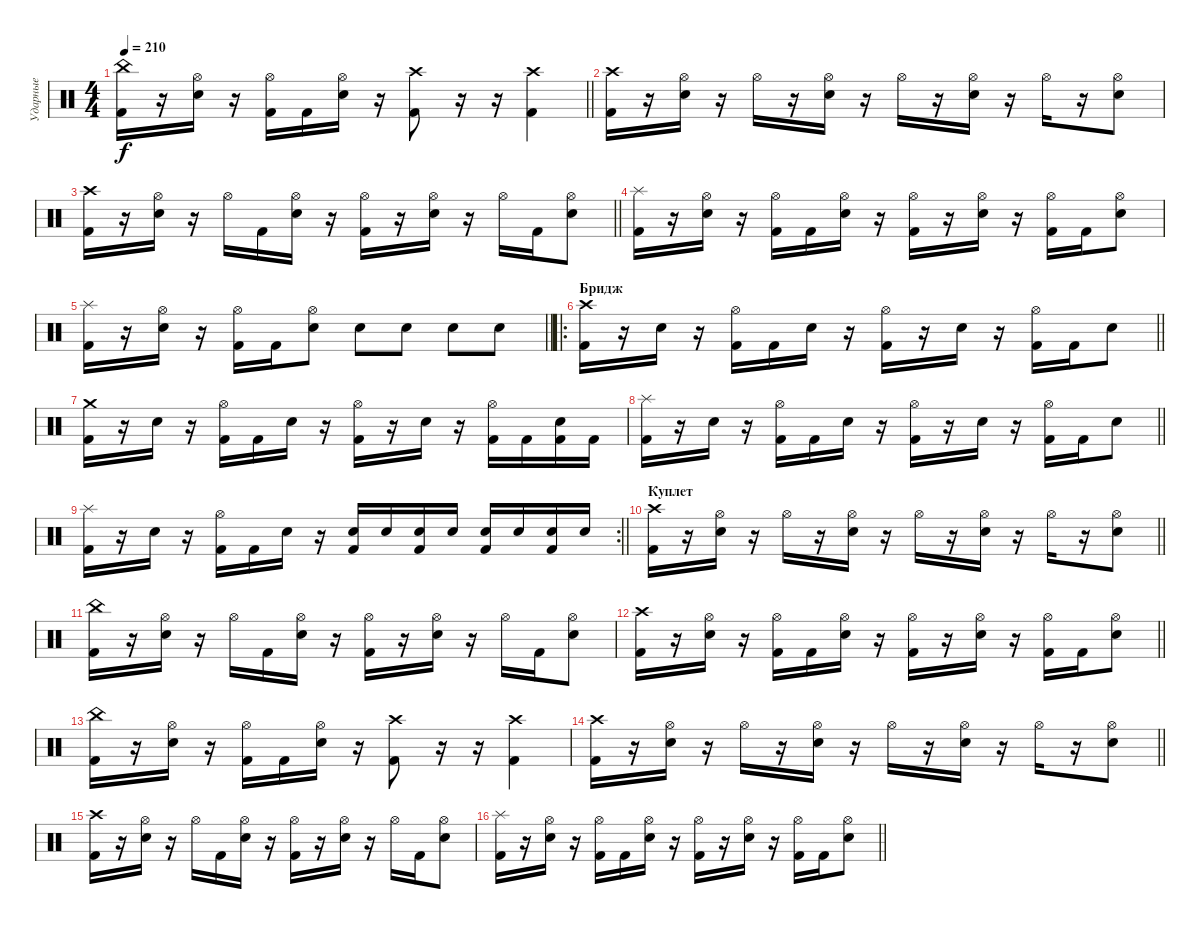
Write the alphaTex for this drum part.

\track ("Ударные" "Ударные") {mute instrument percussion}
\staff {score}
\articulation defaults
\ts (4 4)
\tempo 210
\clef neutral
\barLineRight lightlight
\ks c
("China (hit)" "Kick (hit) 2").16{dy f} r.16 ("Hi-Hat (open)" "Electric Snare (hit)").16 r.16 ("Hi-Hat (open)" "Kick (hit) 2").16 "Kick (hit) 2".16 ("Hi-Hat (open)" "Electric Snare (hit)").16 r.16 ("Crash high (hit)" "Kick (hit) 2").8 r.16 r.16 ("Crash high (hit)"{pm} "Kick (hit) 2").4 |
("Crash high (hit)" "Kick (hit) 2").16 r.16 ("Hi-Hat (open)" "Electric Snare (hit)").16 r.16 "Hi-Hat (open)".16 r.16 ("Hi-Hat (open)" "Electric Snare (hit)").16 r.16 "Hi-Hat (open)".16 r.16 ("Hi-Hat (open)" "Electric Snare (hit)").16 r.16 "Hi-Hat (open)".16 r.16 ("Hi-Hat (open)" "Electric Snare (hit)").8 |
\barLineRight lightlight
("Crash high (hit)" "Kick (hit) 2").16 r.16 ("Hi-Hat (open)" "Electric Snare (hit)").16 r.16 "Hi-Hat (open)".16 "Kick (hit) 2".16 ("Hi-Hat (open)" "Electric Snare (hit)").16 r.16 ("Hi-Hat (open)" "Kick (hit) 2").16 r.16 ("Hi-Hat (open)" "Electric Snare (hit)").16 r.16 "Hi-Hat (open)".16 "Kick (hit) 2".16 ("Hi-Hat (open)" "Electric Snare (hit)").8 |
("Splash (hit)" "Kick (hit) 2").16 r.16 ("Hi-Hat (open)" "Electric Snare (hit)").16 r.16 ("Hi-Hat (open)" "Kick (hit) 2").16 "Kick (hit) 2".16 ("Hi-Hat (open)" "Electric Snare (hit)").16 r.16 ("Hi-Hat (open)" "Kick (hit) 2").16 r.16 ("Hi-Hat (open)" "Electric Snare (hit)").16 r.16 ("Hi-Hat (open)" "Kick (hit) 2").16 "Kick (hit) 2".16 ("Hi-Hat (open)" "Electric Snare (hit)").8 |
\barLineRight lightlight
("Splash (hit)" "Kick (hit) 2").16 r.16 ("Hi-Hat (open)" "Electric Snare (hit)").16 r.16 ("Hi-Hat (open)" "Kick (hit) 2").16 "Kick (hit) 2".16 ("Hi-Hat (open)" "Electric Snare (hit)").8 "Electric Snare (hit)".8 "Electric Snare (hit)".8 "Electric Snare (hit)".8 "Electric Snare (hit)".8 |
\ro
\section ("" "Бридж")
\barLineRight lightlight
("Crash high (hit)" "Kick (hit) 2").16 r.16 "Electric Snare (hit)".16 r.16 ("Hi-Hat (open)" "Kick (hit) 2").16 "Kick (hit) 2".16 "Electric Snare (hit)".16 r.16 ("Hi-Hat (open)" "Kick (hit) 2").16 r.16 "Electric Snare (hit)".16 r.16 ("Hi-Hat (open)" "Kick (hit) 2").16 "Kick (hit) 2".16 "Electric Snare (hit)".8 |
("Crash medium (hit)" "Kick (hit) 2").16 r.16 "Electric Snare (hit)".16 r.16 ("Hi-Hat (open)" "Kick (hit) 2").16 "Kick (hit) 2".16 "Electric Snare (hit)".16 r.16 ("Hi-Hat (open)" "Kick (hit) 2").16 r.16 "Electric Snare (hit)".16 r.16 ("Hi-Hat (open)" "Kick (hit) 2").16 "Kick (hit) 2".16 ("Electric Snare (hit)" "Kick (hit) 2").16 "Kick (hit) 2".16 |
\barLineRight lightlight
("Splash (hit)" "Kick (hit) 2").16 r.16 "Electric Snare (hit)".16 r.16 ("Hi-Hat (open)" "Kick (hit) 2").16 "Kick (hit) 2".16 "Electric Snare (hit)".16 r.16 ("Hi-Hat (open)" "Kick (hit) 2").16 r.16 "Electric Snare (hit)".16 r.16 ("Hi-Hat (open)" "Kick (hit) 2").16 "Kick (hit) 2".16 "Electric Snare (hit)".8 |
\rc 2
\barLineRight lightlight
("Splash (hit)" "Kick (hit) 2").16 r.16 "Electric Snare (hit)".16 r.16 ("Hi-Hat (open)" "Kick (hit) 2").16 "Kick (hit) 2".16 "Electric Snare (hit)".16 r.16 ("Electric Snare (hit)" "Kick (hit) 2").16 "Electric Snare (hit)".16 ("Electric Snare (hit)" "Kick (hit) 2").16 "Electric Snare (hit)".16 ("Electric Snare (hit)" "Kick (hit) 2").16 "Electric Snare (hit)".16 ("Electric Snare (hit)" "Kick (hit) 2").16 "Electric Snare (hit)".16 |
\section ("" "Куплет")
\barLineRight lightlight
("Crash high (hit)" "Kick (hit) 2").16 r.16 ("Hi-Hat (open)" "Electric Snare (hit)").16 r.16 "Hi-Hat (open)".16 r.16 ("Hi-Hat (open)" "Electric Snare (hit)").16 r.16 "Hi-Hat (open)".16 r.16 ("Hi-Hat (open)" "Electric Snare (hit)").16 r.16 "Hi-Hat (open)".16 r.16 ("Hi-Hat (open)" "Electric Snare (hit)").8 |
("China (hit)" "Kick (hit) 2").16 r.16 ("Hi-Hat (open)" "Electric Snare (hit)").16 r.16 "Hi-Hat (open)".16 "Kick (hit) 2".16 ("Hi-Hat (open)" "Electric Snare (hit)").16 r.16 ("Hi-Hat (open)" "Kick (hit) 2").16 r.16 ("Hi-Hat (open)" "Electric Snare (hit)").16 r.16 "Hi-Hat (open)".16 "Kick (hit) 2".16 ("Hi-Hat (open)" "Electric Snare (hit)").8 |
\barLineRight lightlight
("Crash high (hit)" "Kick (hit) 2").16 r.16 ("Hi-Hat (open)" "Electric Snare (hit)").16 r.16 ("Hi-Hat (open)" "Kick (hit) 2").16 "Kick (hit) 2".16 ("Hi-Hat (open)" "Electric Snare (hit)").16 r.16 ("Hi-Hat (open)" "Kick (hit) 2").16 r.16 ("Hi-Hat (open)" "Electric Snare (hit)").16 r.16 ("Hi-Hat (open)" "Kick (hit) 2").16 "Kick (hit) 2".16 ("Hi-Hat (open)" "Electric Snare (hit)").8 |
("China (hit)" "Kick (hit) 2").16 r.16 ("Hi-Hat (open)" "Electric Snare (hit)").16 r.16 ("Hi-Hat (open)" "Kick (hit) 2").16 "Kick (hit) 2".16 ("Hi-Hat (open)" "Electric Snare (hit)").16 r.16 ("Crash high (hit)" "Kick (hit) 2").8 r.16 r.16 ("Crash high (hit)"{pm} "Kick (hit) 2").4 |
\barLineRight lightlight
("Crash high (hit)" "Kick (hit) 2").16 r.16 ("Hi-Hat (open)" "Electric Snare (hit)").16 r.16 "Hi-Hat (open)".16 r.16 ("Hi-Hat (open)" "Electric Snare (hit)").16 r.16 "Hi-Hat (open)".16 r.16 ("Hi-Hat (open)" "Electric Snare (hit)").16 r.16 "Hi-Hat (open)".16 r.16 ("Hi-Hat (open)" "Electric Snare (hit)").8 |
("Crash high (hit)" "Kick (hit) 2").16 r.16 ("Hi-Hat (open)" "Electric Snare (hit)").16 r.16 "Hi-Hat (open)".16 "Kick (hit) 2".16 ("Hi-Hat (open)" "Electric Snare (hit)").16 r.16 ("Hi-Hat (open)" "Kick (hit) 2").16 r.16 ("Hi-Hat (open)" "Electric Snare (hit)").16 r.16 "Hi-Hat (open)".16 "Kick (hit) 2".16 ("Hi-Hat (open)" "Electric Snare (hit)").8 |
\barLineRight lightlight
("Splash (hit)" "Kick (hit) 2").16 r.16 ("Hi-Hat (open)" "Electric Snare (hit)").16 r.16 ("Hi-Hat (open)" "Kick (hit) 2").16 "Kick (hit) 2".16 ("Hi-Hat (open)" "Electric Snare (hit)").16 r.16 ("Hi-Hat (open)" "Kick (hit) 2").16 r.16 ("Hi-Hat (open)" "Electric Snare (hit)").16 r.16 ("Hi-Hat (open)" "Kick (hit) 2").16 "Kick (hit) 2".16 ("Hi-Hat (open)" "Electric Snare (hit)").8
